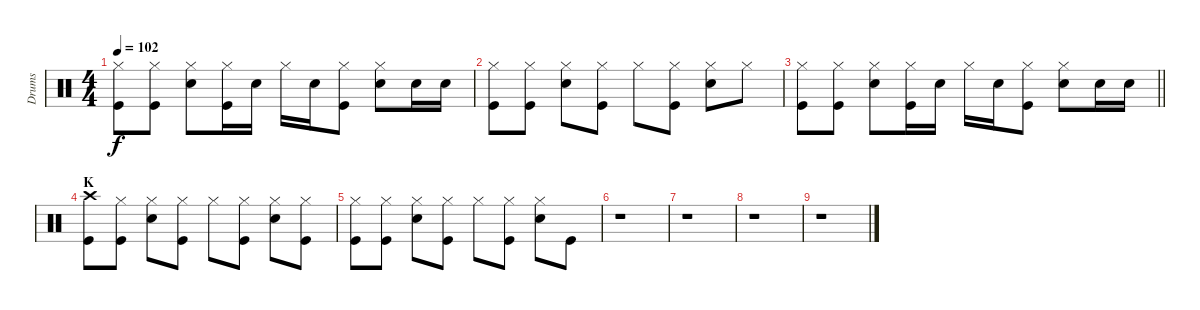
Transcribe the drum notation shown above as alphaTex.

\track ("Drums" "Drums") {instrument percussion}
\staff {score}
\articulation defaults
\ts (4 4)
\tempo 102
\clef neutral
\ks c
("Hi-Hat (closed)" "Kick (hit)").8{dy f} ("Hi-Hat (closed)" "Kick (hit)").8 ("Hi-Hat (closed)" "Electric Snare (hit)").8 ("Hi-Hat (closed)" "Kick (hit)").16 "Electric Snare (hit)".16 "Hi-Hat (closed)".16 "Electric Snare (hit)".16 ("Hi-Hat (closed)" "Kick (hit)").8 ("Hi-Hat (closed)" "Electric Snare (hit)").8 "Electric Snare (hit)".16 "Electric Snare (hit)".16 |
("Hi-Hat (closed)" "Kick (hit)").8 ("Hi-Hat (closed)" "Kick (hit)").8 ("Hi-Hat (closed)" "Electric Snare (hit)").8 ("Hi-Hat (closed)" "Kick (hit)").8 "Hi-Hat (closed)".8 ("Hi-Hat (closed)" "Kick (hit)").8 ("Hi-Hat (closed)" "Electric Snare (hit)").8 "Hi-Hat (closed)".8 |
\barLineRight lightlight
("Hi-Hat (closed)" "Kick (hit)").8 ("Hi-Hat (closed)" "Kick (hit)").8 ("Hi-Hat (closed)" "Electric Snare (hit)").8 ("Hi-Hat (closed)" "Kick (hit)").16 "Electric Snare (hit)".16 "Hi-Hat (closed)".16 "Electric Snare (hit)".16 ("Hi-Hat (closed)" "Kick (hit)").8 ("Hi-Hat (closed)" "Electric Snare (hit)").8 "Electric Snare (hit)".16 "Electric Snare (hit)".16 |
\section ("" "K")
("Crash high (hit)" "Kick (hit)").8 ("Hi-Hat (closed)" "Kick (hit)").8 ("Hi-Hat (closed)" "Electric Snare (hit)").8 ("Hi-Hat (closed)" "Kick (hit)").8 "Hi-Hat (closed)".8 ("Hi-Hat (closed)" "Kick (hit)").8 ("Hi-Hat (closed)" "Electric Snare (hit)").8 ("Hi-Hat (closed)" "Kick (hit)").8 |
("Hi-Hat (closed)" "Kick (hit)").8 ("Hi-Hat (closed)" "Kick (hit)").8 ("Hi-Hat (closed)" "Electric Snare (hit)").8 ("Hi-Hat (closed)" "Kick (hit)").8 "Hi-Hat (closed)".8 ("Hi-Hat (closed)" "Kick (hit)").8 ("Hi-Hat (closed)" "Electric Snare (hit)").8 "Kick (hit)".8 |
r.1 |
r.1 |
r.1 |
r.1
